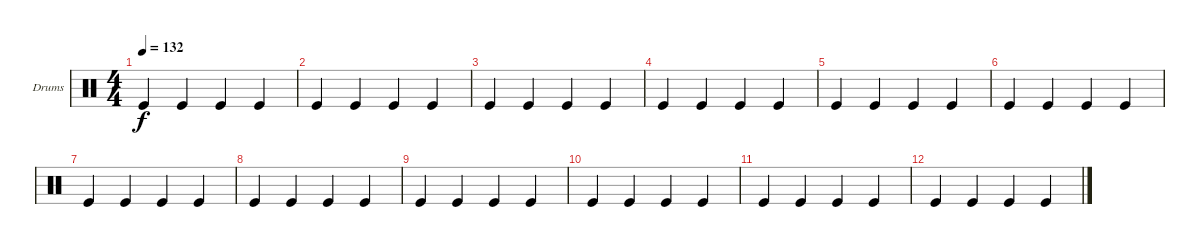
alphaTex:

\defaultSystemsLayout 4
\bracketExtendMode groupsimilarinstruments
\firstSystemTrackNameOrientation horizontal
\otherSystemsTrackNameOrientation horizontal
\track ("Drumkit" "Drums") {instrument percussion}
\staff {score}
\articulation defaults
\ts (4 4)
\tempo 132
\clef neutral
\scale
0.333333
\ks c "Kick (hit)".4{dy f} "Kick (hit)".4 "Kick (hit)".4 "Kick (hit)".4
|
\scale
0.333333 "Kick (hit)".4 "Kick (hit)".4 "Kick (hit)".4 "Kick (hit)".4 |
\scale
0.333333 "Kick (hit)".4 "Kick (hit)".4 "Kick (hit)".4 "Kick (hit)".4 |
\scale
0.333333 "Kick (hit)".4 "Kick (hit)".4 "Kick (hit)".4 "Kick (hit)".4 |
\scale
0.333333 "Kick (hit)".4 "Kick (hit)".4 "Kick (hit)".4 "Kick (hit)".4 |
\scale
0.333333 "Kick (hit)".4 "Kick (hit)".4 "Kick (hit)".4 "Kick (hit)".4 |
\scale
0.333333 "Kick (hit)".4 "Kick (hit)".4 "Kick (hit)".4 "Kick (hit)".4 |
\scale
0.333333 "Kick (hit)".4 "Kick (hit)".4 "Kick (hit)".4 "Kick (hit)".4 |
\scale
0.333333 "Kick (hit)".4 "Kick (hit)".4 "Kick (hit)".4 "Kick (hit)".4 |
\scale
0.333333 "Kick (hit)".4 "Kick (hit)".4 "Kick (hit)".4 "Kick (hit)".4 |
\scale
0.333333 "Kick (hit)".4 "Kick (hit)".4 "Kick (hit)".4 "Kick (hit)".4 |
\scale
0.333333 "Kick (hit)".4 "Kick (hit)".4 "Kick (hit)".4 "Kick (hit)".4 |
\scale
0.333333 |
\scale
0.333333 |
\scale
0.333333 |
\scale
0.333333
